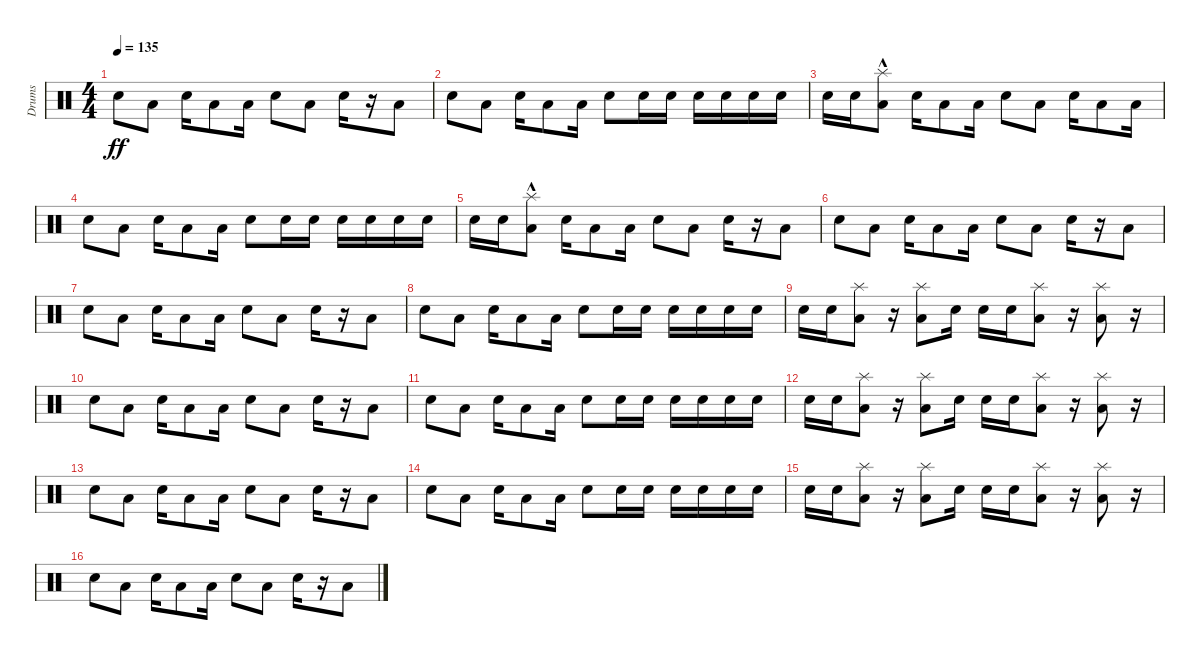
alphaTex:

\track ("Drums" "Drums") {instrument percussion}
\staff {score}
\articulation defaults
\ts (4 4)
\tempo 135
\clef neutral
\ks c "Electric Snare (hit)".8{dy ff} "Low Floor Tom (hit)".8 "Electric Snare (hit)".16 "Low Floor Tom (hit)".8 "Low Floor Tom (hit)".16 "Electric Snare (hit)".8 "Low Floor Tom (hit)".8 "Electric Snare (hit)".16
r.16 "Low Floor Tom (hit)".8 |
"Electric Snare (hit)".8 "Low Floor Tom (hit)".8 "Electric Snare (hit)".16 "Low Floor Tom (hit)".8 "Low Floor Tom (hit)".16 "Electric Snare (hit)".8 "Electric Snare (hit)".16 "Electric Snare (hit)".16 "Electric Snare (hit)".16 "Electric Snare (hit)".16 "Electric Snare (hit)".16 "Electric Snare (hit)".16 |
"Electric Snare (hit)".16 "Electric Snare (hit)".16 ("Low Floor Tom (hit)" "Splash (hit)"{hac}).8 "Electric Snare (hit)".16 "Low Floor Tom (hit)".8 "Low Floor Tom (hit)".16 "Electric Snare (hit)".8 "Low Floor Tom (hit)".8 "Electric Snare (hit)".16 "Low Floor Tom (hit)".8 "Low Floor Tom (hit)".16 |
"Electric Snare (hit)".8 "Low Floor Tom (hit)".8 "Electric Snare (hit)".16 "Low Floor Tom (hit)".8 "Low Floor Tom (hit)".16 "Electric Snare (hit)".8 "Electric Snare (hit)".16 "Electric Snare (hit)".16 "Electric Snare (hit)".16 "Electric Snare (hit)".16 "Electric Snare (hit)".16 "Electric Snare (hit)".16 |
"Electric Snare (hit)".16 "Electric Snare (hit)".16 ("Low Floor Tom (hit)" "Splash (hit)"{hac}).8 "Electric Snare (hit)".16 "Low Floor Tom (hit)".8 "Low Floor Tom (hit)".16 "Electric Snare (hit)".8 "Low Floor Tom (hit)".8 "Electric Snare (hit)".16 r.16 "Low Floor Tom (hit)".8 |
"Electric Snare (hit)".8 "Low Floor Tom (hit)".8 "Electric Snare (hit)".16 "Low Floor Tom (hit)".8 "Low Floor Tom (hit)".16 "Electric Snare (hit)".8 "Low Floor Tom (hit)".8 "Electric Snare (hit)".16 r.16 "Low Floor Tom (hit)".8 |
"Electric Snare (hit)".8 "Low Floor Tom (hit)".8 "Electric Snare (hit)".16 "Low Floor Tom (hit)".8 "Low Floor Tom (hit)".16 "Electric Snare (hit)".8 "Low Floor Tom (hit)".8 "Electric Snare (hit)".16 r.16 "Low Floor Tom (hit)".8 |
"Electric Snare (hit)".8 "Low Floor Tom (hit)".8 "Electric Snare (hit)".16 "Low Floor Tom (hit)".8 "Low Floor Tom (hit)".16 "Electric Snare (hit)".8 "Electric Snare (hit)".16 "Electric Snare (hit)".16 "Electric Snare (hit)".16 "Electric Snare (hit)".16 "Electric Snare (hit)".16 "Electric Snare (hit)".16 |
"Electric Snare (hit)".16 "Electric Snare (hit)".16 ("Low Floor Tom (hit)" "Splash (hit)").8 r.16 ("Low Floor Tom (hit)" "Splash (hit)").8 "Electric Snare (hit)".16 "Electric Snare (hit)".16 "Electric Snare (hit)".16 ("Low Floor Tom (hit)" "Splash (hit)").8 r.16 ("Low Floor Tom (hit)" "Splash (hit)").8 r.16 |
"Electric Snare (hit)".8 "Low Floor Tom (hit)".8 "Electric Snare (hit)".16 "Low Floor Tom (hit)".8 "Low Floor Tom (hit)".16 "Electric Snare (hit)".8 "Low Floor Tom (hit)".8 "Electric Snare (hit)".16 r.16 "Low Floor Tom (hit)".8 |
"Electric Snare (hit)".8 "Low Floor Tom (hit)".8 "Electric Snare (hit)".16 "Low Floor Tom (hit)".8 "Low Floor Tom (hit)".16 "Electric Snare (hit)".8 "Electric Snare (hit)".16 "Electric Snare (hit)".16 "Electric Snare (hit)".16 "Electric Snare (hit)".16 "Electric Snare (hit)".16 "Electric Snare (hit)".16 |
"Electric Snare (hit)".16 "Electric Snare (hit)".16 ("Low Floor Tom (hit)" "Splash (hit)").8 r.16 ("Low Floor Tom (hit)" "Splash (hit)").8 "Electric Snare (hit)".16 "Electric Snare (hit)".16 "Electric Snare (hit)".16 ("Low Floor Tom (hit)" "Splash (hit)").8 r.16 ("Low Floor Tom (hit)" "Splash (hit)").8 r.16 |
"Electric Snare (hit)".8 "Low Floor Tom (hit)".8 "Electric Snare (hit)".16 "Low Floor Tom (hit)".8 "Low Floor Tom (hit)".16 "Electric Snare (hit)".8 "Low Floor Tom (hit)".8 "Electric Snare (hit)".16 r.16 "Low Floor Tom (hit)".8 |
"Electric Snare (hit)".8 "Low Floor Tom (hit)".8 "Electric Snare (hit)".16 "Low Floor Tom (hit)".8 "Low Floor Tom (hit)".16 "Electric Snare (hit)".8 "Electric Snare (hit)".16 "Electric Snare (hit)".16 "Electric Snare (hit)".16 "Electric Snare (hit)".16 "Electric Snare (hit)".16 "Electric Snare (hit)".16 |
"Electric Snare (hit)".16 "Electric Snare (hit)".16 ("Low Floor Tom (hit)" "Splash (hit)").8 r.16 ("Low Floor Tom (hit)" "Splash (hit)").8 "Electric Snare (hit)".16 "Electric Snare (hit)".16 "Electric Snare (hit)".16 ("Low Floor Tom (hit)" "Splash (hit)").8 r.16 ("Low Floor Tom (hit)" "Splash (hit)").8 r.16 |
"Electric Snare (hit)".8 "Low Floor Tom (hit)".8 "Electric Snare (hit)".16 "Low Floor Tom (hit)".8 "Low Floor Tom (hit)".16 "Electric Snare (hit)".8 "Low Floor Tom (hit)".8 "Electric Snare (hit)".16 r.16 "Low Floor Tom (hit)".8
